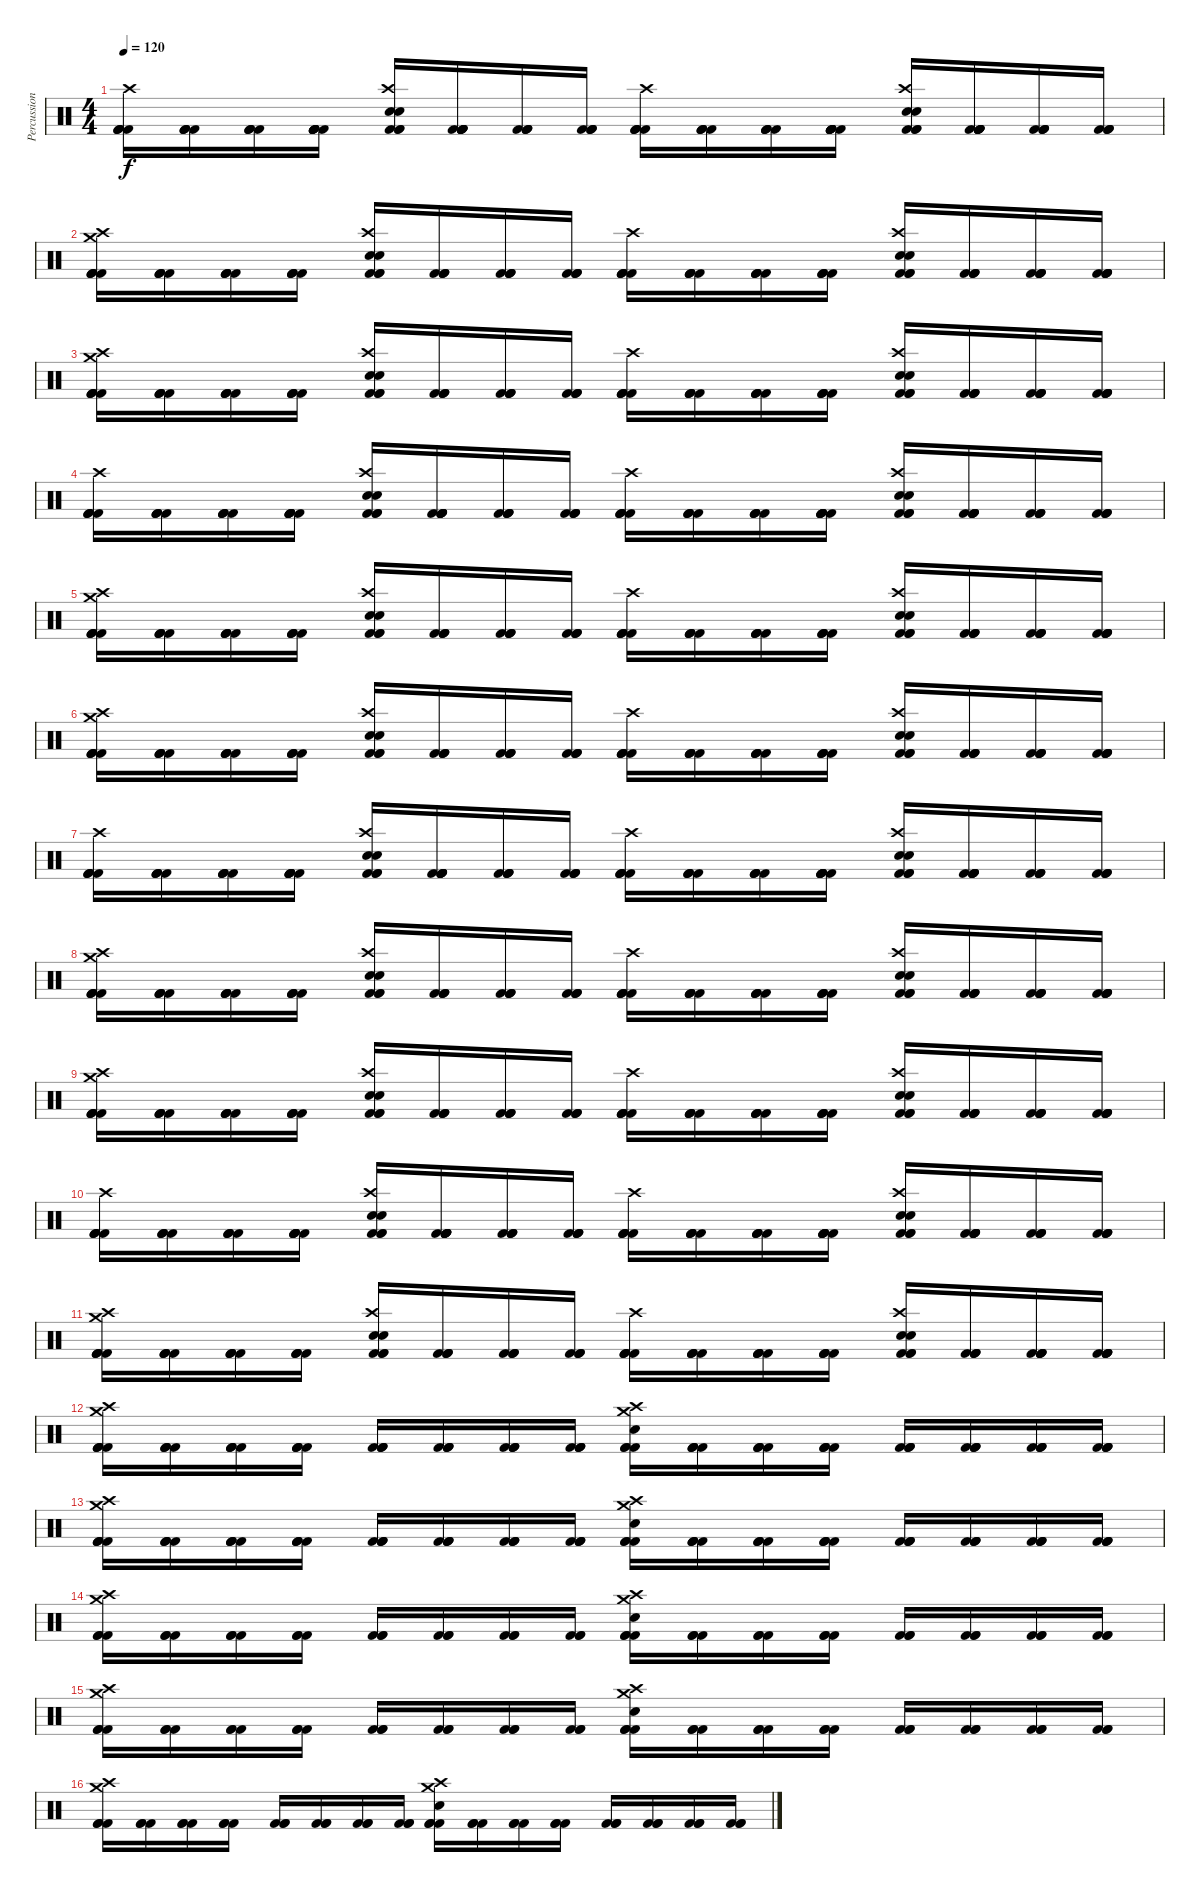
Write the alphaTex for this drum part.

\track ("Percussion" "Percussion") {instrument percussion}
\staff {score}
\articulation defaults
\ts (4 4)
\tempo 120
\clef neutral
\ks c
("Kick (hit) 2" "Crash high (hit)" "Kick (hit) 2" "Kick (hit) 2" "Kick (hit) 2").16{dy f} ("Kick (hit) 2" "Kick (hit) 2" "Kick (hit) 2" "Kick (hit) 2").16 ("Kick (hit) 2" "Kick (hit) 2" "Kick (hit) 2" "Kick (hit) 2").16 ("Kick (hit) 2" "Kick (hit) 2" "Kick (hit) 2" "Kick (hit) 2" "Kick (hit) 2" "Kick (hit) 2").16 ("Snare (hit) 2" "Electric Snare (hit)" "Crash high (hit)" "Kick (hit) 2" "Kick (hit) 2" "Kick (hit) 2").16 ("Kick (hit) 2" "Kick (hit) 2" "Kick (hit) 2" "Kick (hit) 2" "Kick (hit) 2" "Kick (hit) 2").16 ("Kick (hit) 2" "Kick (hit) 2" "Kick (hit) 2" "Kick (hit) 2").16 ("Kick (hit) 2" "Kick (hit) 2" "Kick (hit) 2" "Kick (hit) 2").16 ("Kick (hit) 2" "Crash high (hit)" "Kick (hit) 2" "Kick (hit) 2" "Kick (hit) 2").16 ("Kick (hit) 2" "Kick (hit) 2" "Kick (hit) 2" "Kick (hit) 2").16 ("Kick (hit) 2" "Kick (hit) 2" "Kick (hit) 2" "Kick (hit) 2").16 ("Kick (hit) 2" "Kick (hit) 2" "Kick (hit) 2" "Kick (hit) 2" "Kick (hit) 2" "Kick (hit) 2").16 ("Snare (hit) 2" "Electric Snare (hit)" "Crash high (hit)" "Kick (hit) 2" "Kick (hit) 2" "Kick (hit) 2").16 ("Kick (hit) 2" "Kick (hit) 2" "Kick (hit) 2" "Kick (hit) 2" "Kick (hit) 2" "Kick (hit) 2").16 ("Kick (hit) 2" "Kick (hit) 2" "Kick (hit) 2" "Kick (hit) 2").16 ("Kick (hit) 2" "Kick (hit) 2" "Kick (hit) 2" "Kick (hit) 2").16 |
("Crash medium (hit)" "Kick (hit) 2" "Crash high (hit)" "Kick (hit) 2" "Kick (hit) 2" "Kick (hit) 2").16 ("Kick (hit) 2" "Kick (hit) 2" "Kick (hit) 2" "Kick (hit) 2").16 ("Kick (hit) 2" "Kick (hit) 2" "Kick (hit) 2" "Kick (hit) 2").16 ("Kick (hit) 2" "Kick (hit) 2" "Kick (hit) 2" "Kick (hit) 2").16 ("Snare (hit) 2" "Electric Snare (hit)" "Crash high (hit)" "Kick (hit) 2" "Kick (hit) 2" "Kick (hit) 2").16 ("Kick (hit) 2" "Kick (hit) 2" "Kick (hit) 2" "Kick (hit) 2").16 ("Kick (hit) 2" "Kick (hit) 2" "Kick (hit) 2" "Kick (hit) 2").16 ("Kick (hit) 2" "Kick (hit) 2" "Kick (hit) 2" "Kick (hit) 2").16 ("Kick (hit) 2" "Crash high (hit)" "Kick (hit) 2" "Kick (hit) 2" "Kick (hit) 2").16 ("Kick (hit) 2" "Kick (hit) 2" "Kick (hit) 2" "Kick (hit) 2").16 ("Kick (hit) 2" "Kick (hit) 2" "Kick (hit) 2" "Kick (hit) 2").16 ("Kick (hit) 2" "Kick (hit) 2" "Kick (hit) 2" "Kick (hit) 2").16 ("Snare (hit) 2" "Electric Snare (hit)" "Crash high (hit)" "Kick (hit) 2" "Kick (hit) 2" "Kick (hit) 2").16 ("Kick (hit) 2" "Kick (hit) 2" "Kick (hit) 2" "Kick (hit) 2").16 ("Kick (hit) 2" "Kick (hit) 2" "Kick (hit) 2" "Kick (hit) 2" "Kick (hit) 2").16 ("Kick (hit) 2" "Kick (hit) 2" "Kick (hit) 2" "Kick (hit) 2" "Kick (hit) 2").16 |
("Crash medium (hit)" "Kick (hit) 2" "Crash high (hit)" "Kick (hit) 2" "Kick (hit) 2" "Kick (hit) 2").16 ("Kick (hit) 2" "Kick (hit) 2" "Kick (hit) 2" "Kick (hit) 2").16 ("Kick (hit) 2" "Kick (hit) 2" "Kick (hit) 2" "Kick (hit) 2").16 ("Kick (hit) 2" "Kick (hit) 2" "Kick (hit) 2" "Kick (hit) 2").16 ("Snare (hit) 2" "Electric Snare (hit)" "Crash high (hit)" "Kick (hit) 2" "Kick (hit) 2" "Kick (hit) 2").16 ("Kick (hit) 2" "Kick (hit) 2" "Kick (hit) 2" "Kick (hit) 2").16 ("Kick (hit) 2" "Kick (hit) 2" "Kick (hit) 2" "Kick (hit) 2").16 ("Kick (hit) 2" "Kick (hit) 2" "Kick (hit) 2" "Kick (hit) 2").16 ("Kick (hit) 2" "Crash high (hit)" "Kick (hit) 2" "Kick (hit) 2" "Kick (hit) 2").16 ("Kick (hit) 2" "Kick (hit) 2" "Kick (hit) 2" "Kick (hit) 2").16 ("Kick (hit) 2" "Kick (hit) 2" "Kick (hit) 2" "Kick (hit) 2").16 ("Kick (hit) 2" "Kick (hit) 2" "Kick (hit) 2" "Kick (hit) 2").16 ("Snare (hit) 2" "Electric Snare (hit)" "Crash high (hit)" "Kick (hit) 2" "Kick (hit) 2" "Kick (hit) 2").16 ("Kick (hit) 2" "Kick (hit) 2" "Kick (hit) 2" "Kick (hit) 2").16 ("Kick (hit) 2" "Kick (hit) 2" "Kick (hit) 2" "Kick (hit) 2" "Kick (hit) 2").16 ("Kick (hit) 2" "Kick (hit) 2" "Kick (hit) 2" "Kick (hit) 2" "Kick (hit) 2").16 |
("Kick (hit) 2" "Crash high (hit)" "Kick (hit) 2" "Kick (hit) 2" "Kick (hit) 2").16 ("Kick (hit) 2" "Kick (hit) 2" "Kick (hit) 2" "Kick (hit) 2").16 ("Kick (hit) 2" "Kick (hit) 2" "Kick (hit) 2" "Kick (hit) 2").16 ("Kick (hit) 2" "Kick (hit) 2" "Kick (hit) 2" "Kick (hit) 2" "Kick (hit) 2" "Kick (hit) 2").16 ("Snare (hit) 2" "Electric Snare (hit)" "Crash high (hit)" "Kick (hit) 2" "Kick (hit) 2" "Kick (hit) 2").16 ("Kick (hit) 2" "Kick (hit) 2" "Kick (hit) 2" "Kick (hit) 2" "Kick (hit) 2" "Kick (hit) 2").16 ("Kick (hit) 2" "Kick (hit) 2" "Kick (hit) 2" "Kick (hit) 2").16 ("Kick (hit) 2" "Kick (hit) 2" "Kick (hit) 2" "Kick (hit) 2").16 ("Kick (hit) 2" "Crash high (hit)" "Kick (hit) 2" "Kick (hit) 2" "Kick (hit) 2").16 ("Kick (hit) 2" "Kick (hit) 2" "Kick (hit) 2" "Kick (hit) 2").16 ("Kick (hit) 2" "Kick (hit) 2" "Kick (hit) 2" "Kick (hit) 2").16 ("Kick (hit) 2" "Kick (hit) 2" "Kick (hit) 2" "Kick (hit) 2" "Kick (hit) 2" "Kick (hit) 2").16 ("Snare (hit) 2" "Electric Snare (hit)" "Crash high (hit)" "Kick (hit) 2" "Kick (hit) 2" "Kick (hit) 2").16 ("Kick (hit) 2" "Kick (hit) 2" "Kick (hit) 2" "Kick (hit) 2" "Kick (hit) 2" "Kick (hit) 2").16 ("Kick (hit) 2" "Kick (hit) 2" "Kick (hit) 2" "Kick (hit) 2").16 ("Kick (hit) 2" "Kick (hit) 2" "Kick (hit) 2" "Kick (hit) 2").16 |
("Crash medium (hit)" "Kick (hit) 2" "Crash high (hit)" "Kick (hit) 2" "Kick (hit) 2" "Kick (hit) 2").16 ("Kick (hit) 2" "Kick (hit) 2" "Kick (hit) 2" "Kick (hit) 2").16 ("Kick (hit) 2" "Kick (hit) 2" "Kick (hit) 2" "Kick (hit) 2").16 ("Kick (hit) 2" "Kick (hit) 2" "Kick (hit) 2" "Kick (hit) 2").16 ("Snare (hit) 2" "Electric Snare (hit)" "Crash high (hit)" "Kick (hit) 2" "Kick (hit) 2" "Kick (hit) 2").16 ("Kick (hit) 2" "Kick (hit) 2" "Kick (hit) 2" "Kick (hit) 2").16 ("Kick (hit) 2" "Kick (hit) 2" "Kick (hit) 2" "Kick (hit) 2").16 ("Kick (hit) 2" "Kick (hit) 2" "Kick (hit) 2" "Kick (hit) 2").16 ("Kick (hit) 2" "Crash high (hit)" "Kick (hit) 2" "Kick (hit) 2" "Kick (hit) 2").16 ("Kick (hit) 2" "Kick (hit) 2" "Kick (hit) 2" "Kick (hit) 2").16 ("Kick (hit) 2" "Kick (hit) 2" "Kick (hit) 2" "Kick (hit) 2").16 ("Kick (hit) 2" "Kick (hit) 2" "Kick (hit) 2" "Kick (hit) 2").16 ("Snare (hit) 2" "Electric Snare (hit)" "Crash high (hit)" "Kick (hit) 2" "Kick (hit) 2" "Kick (hit) 2").16 ("Kick (hit) 2" "Kick (hit) 2" "Kick (hit) 2" "Kick (hit) 2").16 ("Kick (hit) 2" "Kick (hit) 2" "Kick (hit) 2" "Kick (hit) 2" "Kick (hit) 2").16 ("Kick (hit) 2" "Kick (hit) 2" "Kick (hit) 2" "Kick (hit) 2" "Kick (hit) 2").16 |
("Crash medium (hit)" "Kick (hit) 2" "Crash high (hit)" "Kick (hit) 2" "Kick (hit) 2" "Kick (hit) 2").16 ("Kick (hit) 2" "Kick (hit) 2" "Kick (hit) 2" "Kick (hit) 2").16 ("Kick (hit) 2" "Kick (hit) 2" "Kick (hit) 2" "Kick (hit) 2").16 ("Kick (hit) 2" "Kick (hit) 2" "Kick (hit) 2" "Kick (hit) 2").16 ("Snare (hit) 2" "Electric Snare (hit)" "Crash high (hit)" "Kick (hit) 2" "Kick (hit) 2" "Kick (hit) 2").16 ("Kick (hit) 2" "Kick (hit) 2" "Kick (hit) 2" "Kick (hit) 2").16 ("Kick (hit) 2" "Kick (hit) 2" "Kick (hit) 2" "Kick (hit) 2").16 ("Kick (hit) 2" "Kick (hit) 2" "Kick (hit) 2" "Kick (hit) 2").16 ("Kick (hit) 2" "Crash high (hit)" "Kick (hit) 2" "Kick (hit) 2" "Kick (hit) 2").16 ("Kick (hit) 2" "Kick (hit) 2" "Kick (hit) 2" "Kick (hit) 2").16 ("Kick (hit) 2" "Kick (hit) 2" "Kick (hit) 2" "Kick (hit) 2").16 ("Kick (hit) 2" "Kick (hit) 2" "Kick (hit) 2" "Kick (hit) 2").16 ("Snare (hit) 2" "Electric Snare (hit)" "Crash high (hit)" "Kick (hit) 2" "Kick (hit) 2" "Kick (hit) 2").16 ("Kick (hit) 2" "Kick (hit) 2" "Kick (hit) 2" "Kick (hit) 2").16 ("Kick (hit) 2" "Kick (hit) 2" "Kick (hit) 2" "Kick (hit) 2" "Kick (hit) 2").16 ("Kick (hit) 2" "Kick (hit) 2" "Kick (hit) 2" "Kick (hit) 2" "Kick (hit) 2").16 |
("Kick (hit) 2" "Crash high (hit)" "Kick (hit) 2" "Kick (hit) 2" "Kick (hit) 2").16 ("Kick (hit) 2" "Kick (hit) 2" "Kick (hit) 2" "Kick (hit) 2").16 ("Kick (hit) 2" "Kick (hit) 2" "Kick (hit) 2" "Kick (hit) 2").16 ("Kick (hit) 2" "Kick (hit) 2" "Kick (hit) 2" "Kick (hit) 2" "Kick (hit) 2" "Kick (hit) 2").16 ("Snare (hit) 2" "Electric Snare (hit)" "Crash high (hit)" "Kick (hit) 2" "Kick (hit) 2" "Kick (hit) 2").16 ("Kick (hit) 2" "Kick (hit) 2" "Kick (hit) 2" "Kick (hit) 2" "Kick (hit) 2" "Kick (hit) 2").16 ("Kick (hit) 2" "Kick (hit) 2" "Kick (hit) 2" "Kick (hit) 2").16 ("Kick (hit) 2" "Kick (hit) 2" "Kick (hit) 2" "Kick (hit) 2").16 ("Kick (hit) 2" "Crash high (hit)" "Kick (hit) 2" "Kick (hit) 2" "Kick (hit) 2").16 ("Kick (hit) 2" "Kick (hit) 2" "Kick (hit) 2" "Kick (hit) 2").16 ("Kick (hit) 2" "Kick (hit) 2" "Kick (hit) 2" "Kick (hit) 2").16 ("Kick (hit) 2" "Kick (hit) 2" "Kick (hit) 2" "Kick (hit) 2" "Kick (hit) 2" "Kick (hit) 2").16 ("Snare (hit) 2" "Electric Snare (hit)" "Crash high (hit)" "Kick (hit) 2" "Kick (hit) 2" "Kick (hit) 2").16 ("Kick (hit) 2" "Kick (hit) 2" "Kick (hit) 2" "Kick (hit) 2" "Kick (hit) 2" "Kick (hit) 2").16 ("Kick (hit) 2" "Kick (hit) 2" "Kick (hit) 2" "Kick (hit) 2").16 ("Kick (hit) 2" "Kick (hit) 2" "Kick (hit) 2" "Kick (hit) 2").16 |
("Crash medium (hit)" "Kick (hit) 2" "Crash high (hit)" "Kick (hit) 2" "Kick (hit) 2" "Kick (hit) 2").16 ("Kick (hit) 2" "Kick (hit) 2" "Kick (hit) 2" "Kick (hit) 2").16 ("Kick (hit) 2" "Kick (hit) 2" "Kick (hit) 2" "Kick (hit) 2").16 ("Kick (hit) 2" "Kick (hit) 2" "Kick (hit) 2" "Kick (hit) 2").16 ("Snare (hit) 2" "Electric Snare (hit)" "Crash high (hit)" "Kick (hit) 2" "Kick (hit) 2" "Kick (hit) 2").16 ("Kick (hit) 2" "Kick (hit) 2" "Kick (hit) 2" "Kick (hit) 2").16 ("Kick (hit) 2" "Kick (hit) 2" "Kick (hit) 2" "Kick (hit) 2").16 ("Kick (hit) 2" "Kick (hit) 2" "Kick (hit) 2" "Kick (hit) 2").16 ("Kick (hit) 2" "Crash high (hit)" "Kick (hit) 2" "Kick (hit) 2" "Kick (hit) 2").16 ("Kick (hit) 2" "Kick (hit) 2" "Kick (hit) 2" "Kick (hit) 2").16 ("Kick (hit) 2" "Kick (hit) 2" "Kick (hit) 2" "Kick (hit) 2").16 ("Kick (hit) 2" "Kick (hit) 2" "Kick (hit) 2" "Kick (hit) 2").16 ("Snare (hit) 2" "Electric Snare (hit)" "Crash high (hit)" "Kick (hit) 2" "Kick (hit) 2" "Kick (hit) 2").16 ("Kick (hit) 2" "Kick (hit) 2" "Kick (hit) 2" "Kick (hit) 2").16 ("Kick (hit) 2" "Kick (hit) 2" "Kick (hit) 2" "Kick (hit) 2" "Kick (hit) 2").16 ("Kick (hit) 2" "Kick (hit) 2" "Kick (hit) 2" "Kick (hit) 2" "Kick (hit) 2").16 |
("Crash medium (hit)" "Kick (hit) 2" "Crash high (hit)" "Kick (hit) 2" "Kick (hit) 2" "Kick (hit) 2").16 ("Kick (hit) 2" "Kick (hit) 2" "Kick (hit) 2" "Kick (hit) 2").16 ("Kick (hit) 2" "Kick (hit) 2" "Kick (hit) 2" "Kick (hit) 2").16 ("Kick (hit) 2" "Kick (hit) 2" "Kick (hit) 2" "Kick (hit) 2").16 ("Snare (hit) 2" "Electric Snare (hit)" "Crash high (hit)" "Kick (hit) 2" "Kick (hit) 2" "Kick (hit) 2").16 ("Kick (hit) 2" "Kick (hit) 2" "Kick (hit) 2" "Kick (hit) 2").16 ("Kick (hit) 2" "Kick (hit) 2" "Kick (hit) 2" "Kick (hit) 2").16 ("Kick (hit) 2" "Kick (hit) 2" "Kick (hit) 2" "Kick (hit) 2").16 ("Kick (hit) 2" "Crash high (hit)" "Kick (hit) 2" "Kick (hit) 2" "Kick (hit) 2").16 ("Kick (hit) 2" "Kick (hit) 2" "Kick (hit) 2" "Kick (hit) 2").16 ("Kick (hit) 2" "Kick (hit) 2" "Kick (hit) 2" "Kick (hit) 2").16 ("Kick (hit) 2" "Kick (hit) 2" "Kick (hit) 2" "Kick (hit) 2").16 ("Snare (hit) 2" "Electric Snare (hit)" "Crash high (hit)" "Kick (hit) 2" "Kick (hit) 2" "Kick (hit) 2").16 ("Kick (hit) 2" "Kick (hit) 2" "Kick (hit) 2" "Kick (hit) 2").16 ("Kick (hit) 2" "Kick (hit) 2" "Kick (hit) 2" "Kick (hit) 2" "Kick (hit) 2").16 ("Kick (hit) 2" "Kick (hit) 2" "Kick (hit) 2" "Kick (hit) 2" "Kick (hit) 2").16 |
("Kick (hit) 2" "Crash high (hit)" "Kick (hit) 2" "Kick (hit) 2" "Kick (hit) 2").16 ("Kick (hit) 2" "Kick (hit) 2" "Kick (hit) 2" "Kick (hit) 2").16 ("Kick (hit) 2" "Kick (hit) 2" "Kick (hit) 2" "Kick (hit) 2").16 ("Kick (hit) 2" "Kick (hit) 2" "Kick (hit) 2" "Kick (hit) 2" "Kick (hit) 2" "Kick (hit) 2").16 ("Snare (hit) 2" "Electric Snare (hit)" "Crash high (hit)" "Kick (hit) 2" "Kick (hit) 2" "Kick (hit) 2").16 ("Kick (hit) 2" "Kick (hit) 2" "Kick (hit) 2" "Kick (hit) 2" "Kick (hit) 2" "Kick (hit) 2").16 ("Kick (hit) 2" "Kick (hit) 2" "Kick (hit) 2" "Kick (hit) 2").16 ("Kick (hit) 2" "Kick (hit) 2" "Kick (hit) 2" "Kick (hit) 2").16 ("Kick (hit) 2" "Crash high (hit)" "Kick (hit) 2" "Kick (hit) 2" "Kick (hit) 2").16 ("Kick (hit) 2" "Kick (hit) 2" "Kick (hit) 2" "Kick (hit) 2").16 ("Kick (hit) 2" "Kick (hit) 2" "Kick (hit) 2" "Kick (hit) 2").16 ("Kick (hit) 2" "Kick (hit) 2" "Kick (hit) 2" "Kick (hit) 2" "Kick (hit) 2" "Kick (hit) 2").16 ("Snare (hit) 2" "Electric Snare (hit)" "Crash high (hit)" "Kick (hit) 2" "Kick (hit) 2" "Kick (hit) 2").16 ("Kick (hit) 2" "Kick (hit) 2" "Kick (hit) 2" "Kick (hit) 2" "Kick (hit) 2" "Kick (hit) 2").16 ("Kick (hit) 2" "Kick (hit) 2" "Kick (hit) 2" "Kick (hit) 2").16 ("Kick (hit) 2" "Kick (hit) 2" "Kick (hit) 2" "Kick (hit) 2").16 |
("Crash medium (hit)" "Kick (hit) 2" "Crash high (hit)" "Kick (hit) 2" "Kick (hit) 2" "Kick (hit) 2").16 ("Kick (hit) 2" "Kick (hit) 2" "Kick (hit) 2" "Kick (hit) 2").16 ("Kick (hit) 2" "Kick (hit) 2" "Kick (hit) 2" "Kick (hit) 2").16 ("Kick (hit) 2" "Kick (hit) 2" "Kick (hit) 2" "Kick (hit) 2").16 ("Snare (hit) 2" "Electric Snare (hit)" "Crash high (hit)" "Kick (hit) 2" "Kick (hit) 2" "Kick (hit) 2").16 ("Kick (hit) 2" "Kick (hit) 2" "Kick (hit) 2" "Kick (hit) 2").16 ("Kick (hit) 2" "Kick (hit) 2" "Kick (hit) 2" "Kick (hit) 2").16 ("Kick (hit) 2" "Kick (hit) 2" "Kick (hit) 2" "Kick (hit) 2").16 ("Kick (hit) 2" "Crash high (hit)" "Kick (hit) 2" "Kick (hit) 2" "Kick (hit) 2").16 ("Kick (hit) 2" "Kick (hit) 2" "Kick (hit) 2" "Kick (hit) 2").16 ("Kick (hit) 2" "Kick (hit) 2" "Kick (hit) 2" "Kick (hit) 2").16 ("Kick (hit) 2" "Kick (hit) 2" "Kick (hit) 2" "Kick (hit) 2").16 ("Snare (hit) 2" "Electric Snare (hit)" "Crash high (hit)" "Kick (hit) 2" "Kick (hit) 2" "Kick (hit) 2").16 ("Kick (hit) 2" "Kick (hit) 2" "Kick (hit) 2" "Kick (hit) 2").16 ("Kick (hit) 2" "Kick (hit) 2" "Kick (hit) 2" "Kick (hit) 2" "Kick (hit) 2").16 ("Kick (hit) 2" "Kick (hit) 2" "Kick (hit) 2" "Kick (hit) 2" "Kick (hit) 2").16 |
("Crash medium (hit)" "Crash high (hit)" "Kick (hit) 2" "Kick (hit) 2" "Kick (hit) 2" "Kick (hit) 2").16 ("Kick (hit) 2" "Kick (hit) 2" "Kick (hit) 2" "Kick (hit) 2").16 ("Kick (hit) 2" "Kick (hit) 2" "Kick (hit) 2" "Kick (hit) 2").16 ("Kick (hit) 2" "Kick (hit) 2" "Kick (hit) 2" "Kick (hit) 2").16 ("Kick (hit) 2" "Kick (hit) 2" "Kick (hit) 2" "Kick (hit) 2").16 ("Kick (hit) 2" "Kick (hit) 2" "Kick (hit) 2" "Kick (hit) 2").16 ("Kick (hit) 2" "Kick (hit) 2" "Kick (hit) 2" "Kick (hit) 2").16 ("Kick (hit) 2" "Kick (hit) 2" "Kick (hit) 2" "Kick (hit) 2").16 ("Crash medium (hit)" "Crash high (hit)" "Electric Snare (hit)" "Kick (hit) 2" "Kick (hit) 2" "Kick (hit) 2").16 ("Kick (hit) 2" "Kick (hit) 2" "Kick (hit) 2" "Kick (hit) 2").16 ("Kick (hit) 2" "Kick (hit) 2" "Kick (hit) 2" "Kick (hit) 2").16 ("Kick (hit) 2" "Kick (hit) 2" "Kick (hit) 2" "Kick (hit) 2").16 ("Kick (hit) 2" "Kick (hit) 2" "Kick (hit) 2" "Kick (hit) 2").16 ("Kick (hit) 2" "Kick (hit) 2" "Kick (hit) 2" "Kick (hit) 2").16 ("Kick (hit) 2" "Kick (hit) 2" "Kick (hit) 2" "Kick (hit) 2").16 ("Kick (hit) 2" "Kick (hit) 2" "Kick (hit) 2" "Kick (hit) 2").16 |
("Crash medium (hit)" "Crash high (hit)" "Kick (hit) 2" "Kick (hit) 2" "Kick (hit) 2" "Kick (hit) 2").16 ("Kick (hit) 2" "Kick (hit) 2" "Kick (hit) 2" "Kick (hit) 2").16 ("Kick (hit) 2" "Kick (hit) 2" "Kick (hit) 2" "Kick (hit) 2").16 ("Kick (hit) 2" "Kick (hit) 2" "Kick (hit) 2" "Kick (hit) 2").16 ("Kick (hit) 2" "Kick (hit) 2" "Kick (hit) 2" "Kick (hit) 2").16 ("Kick (hit) 2" "Kick (hit) 2" "Kick (hit) 2" "Kick (hit) 2").16 ("Kick (hit) 2" "Kick (hit) 2" "Kick (hit) 2" "Kick (hit) 2").16 ("Kick (hit) 2" "Kick (hit) 2" "Kick (hit) 2" "Kick (hit) 2").16 ("Crash medium (hit)" "Crash high (hit)" "Electric Snare (hit)" "Kick (hit) 2" "Kick (hit) 2" "Kick (hit) 2").16 ("Kick (hit) 2" "Kick (hit) 2" "Kick (hit) 2" "Kick (hit) 2").16 ("Kick (hit) 2" "Kick (hit) 2" "Kick (hit) 2" "Kick (hit) 2").16 ("Kick (hit) 2" "Kick (hit) 2" "Kick (hit) 2" "Kick (hit) 2").16 ("Kick (hit) 2" "Kick (hit) 2" "Kick (hit) 2" "Kick (hit) 2").16 ("Kick (hit) 2" "Kick (hit) 2" "Kick (hit) 2" "Kick (hit) 2").16 ("Kick (hit) 2" "Kick (hit) 2" "Kick (hit) 2" "Kick (hit) 2").16 ("Kick (hit) 2" "Kick (hit) 2" "Kick (hit) 2" "Kick (hit) 2").16 |
("Crash medium (hit)" "Crash high (hit)" "Kick (hit) 2" "Kick (hit) 2" "Kick (hit) 2").16 ("Kick (hit) 2" "Kick (hit) 2" "Kick (hit) 2").16 ("Kick (hit) 2" "Kick (hit) 2" "Kick (hit) 2").16 ("Kick (hit) 2" "Kick (hit) 2" "Kick (hit) 2").16 ("Kick (hit) 2" "Kick (hit) 2" "Kick (hit) 2").16 ("Kick (hit) 2" "Kick (hit) 2" "Kick (hit) 2").16 ("Kick (hit) 2" "Kick (hit) 2" "Kick (hit) 2").16 ("Kick (hit) 2" "Kick (hit) 2" "Kick (hit) 2").16 ("Crash medium (hit)" "Crash high (hit)" "Electric Snare (hit)" "Kick (hit) 2" "Kick (hit) 2" "Kick (hit) 2").16 ("Kick (hit) 2" "Kick (hit) 2" "Kick (hit) 2").16 ("Kick (hit) 2" "Kick (hit) 2" "Kick (hit) 2").16 ("Kick (hit) 2" "Kick (hit) 2" "Kick (hit) 2").16 ("Kick (hit) 2" "Kick (hit) 2" "Kick (hit) 2").16 ("Kick (hit) 2" "Kick (hit) 2" "Kick (hit) 2").16 ("Kick (hit) 2" "Kick (hit) 2" "Kick (hit) 2").16 ("Kick (hit) 2" "Kick (hit) 2" "Kick (hit) 2").16 |
("Crash medium (hit)" "Crash high (hit)" "Kick (hit) 2" "Kick (hit) 2" "Kick (hit) 2").16 ("Kick (hit) 2" "Kick (hit) 2" "Kick (hit) 2").16 ("Kick (hit) 2" "Kick (hit) 2" "Kick (hit) 2").16 ("Kick (hit) 2" "Kick (hit) 2" "Kick (hit) 2").16 ("Kick (hit) 2" "Kick (hit) 2" "Kick (hit) 2").16 ("Kick (hit) 2" "Kick (hit) 2" "Kick (hit) 2").16 ("Kick (hit) 2" "Kick (hit) 2" "Kick (hit) 2").16 ("Kick (hit) 2" "Kick (hit) 2" "Kick (hit) 2").16 ("Crash medium (hit)" "Crash high (hit)" "Electric Snare (hit)" "Kick (hit) 2" "Kick (hit) 2" "Kick (hit) 2").16 ("Kick (hit) 2" "Kick (hit) 2" "Kick (hit) 2").16 ("Kick (hit) 2" "Kick (hit) 2" "Kick (hit) 2").16 ("Kick (hit) 2" "Kick (hit) 2" "Kick (hit) 2").16 ("Kick (hit) 2" "Kick (hit) 2" "Kick (hit) 2").16 ("Kick (hit) 2" "Kick (hit) 2" "Kick (hit) 2").16 ("Kick (hit) 2" "Kick (hit) 2" "Kick (hit) 2").16 ("Kick (hit) 2" "Kick (hit) 2" "Kick (hit) 2").16 |
("Crash medium (hit)" "Crash high (hit)" "Kick (hit) 2" "Kick (hit) 2" "Kick (hit) 2").16 ("Kick (hit) 2" "Kick (hit) 2" "Kick (hit) 2").16 ("Kick (hit) 2" "Kick (hit) 2" "Kick (hit) 2").16 ("Kick (hit) 2" "Kick (hit) 2" "Kick (hit) 2").16 ("Kick (hit) 2" "Kick (hit) 2" "Kick (hit) 2").16 ("Kick (hit) 2" "Kick (hit) 2" "Kick (hit) 2").16 ("Kick (hit) 2" "Kick (hit) 2" "Kick (hit) 2").16 ("Kick (hit) 2" "Kick (hit) 2" "Kick (hit) 2").16 ("Crash medium (hit)" "Crash high (hit)" "Electric Snare (hit)" "Kick (hit) 2" "Kick (hit) 2" "Kick (hit) 2").16 ("Kick (hit) 2" "Kick (hit) 2" "Kick (hit) 2").16 ("Kick (hit) 2" "Kick (hit) 2" "Kick (hit) 2").16 ("Kick (hit) 2" "Kick (hit) 2" "Kick (hit) 2").16 ("Kick (hit) 2" "Kick (hit) 2" "Kick (hit) 2").16 ("Kick (hit) 2" "Kick (hit) 2" "Kick (hit) 2").16 ("Kick (hit) 2" "Kick (hit) 2" "Kick (hit) 2").16 ("Kick (hit) 2" "Kick (hit) 2" "Kick (hit) 2").16
